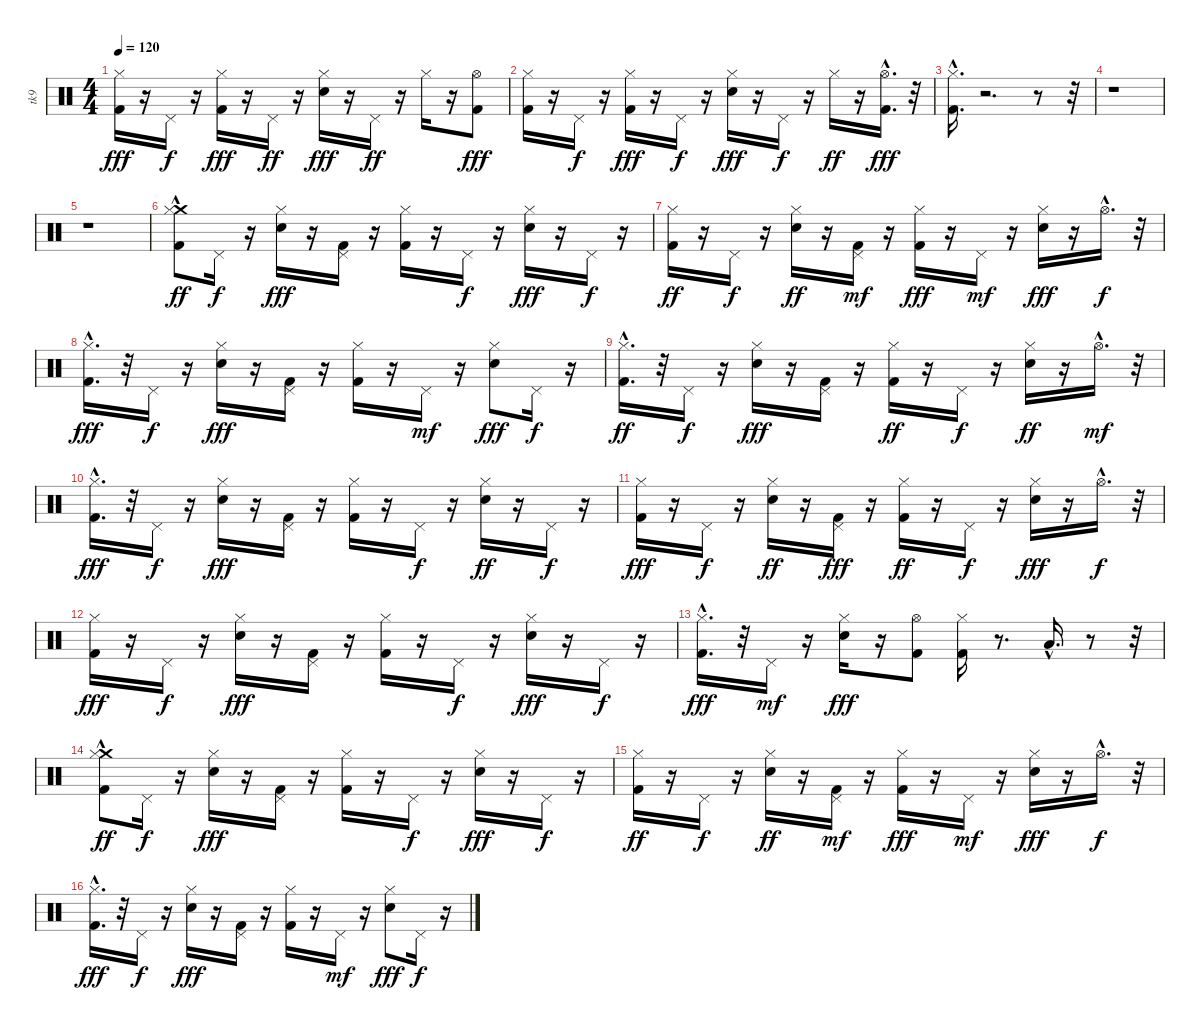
\track ("tk9" "tk9") {instrument percussion}
\staff {score}
\articulation defaults
\ts (4 4)
\tempo 120
\clef neutral
\ks c
("Hi-Hat (closed)" "Kick (hit) 2").16{dy fff} r.16 "Pedal Hi-Hat (hit)".16{dy f} r.16 ("Hi-Hat (closed)" "Kick (hit) 2").16{dy fff} r.16 "Pedal Hi-Hat (hit)".16{dy ff} r.16 ("Hi-Hat (closed)" "Snare (hit) 2").16{dy fff} r.16 "Pedal Hi-Hat (hit)".16{dy ff} r.16 "Hi-Hat (closed)".16 r.16 ("Hi-Hat (open)" "Kick (hit) 2").8{dy fff} |
("Hi-Hat (closed)" "Kick (hit) 2").16 r.16 "Pedal Hi-Hat (hit)".16{dy f} r.16 ("Hi-Hat (closed)" "Kick (hit) 2").16{dy fff} r.16 "Pedal Hi-Hat (hit)".16{dy f} r.16 ("Hi-Hat (closed)" "Snare (hit) 2").16{dy fff} r.16 "Pedal Hi-Hat (hit)".16{dy f} r.16 "Hi-Hat (closed)".16{dy ff} r.16 ("Hi-Hat (open)"{hac} "Kick (hit) 2").16{d dy fff} r.32 |
("Hi-Hat (closed)"{hac} "Kick (hit) 2").16{d} r.2{d} r.8 r.32 |
r.1 |
r.1 |
("Kick (hit) 2"{hac} "Crash medium (hit)" "Hi-Hat (closed)").8{dy ff} "Pedal Hi-Hat (hit)".16{dy f} r.16 ("Hi-Hat (closed)" "Snare (hit) 2").16{dy fff} r.16 ("Pedal Hi-Hat (hit)" "Kick (hit) 2").16 r.16 ("Hi-Hat (closed)" "Kick (hit) 2").16 r.16 "Pedal Hi-Hat (hit)".16{dy f} r.16 ("Hi-Hat (closed)" "Snare (hit) 2").16{dy fff} r.16 "Pedal Hi-Hat (hit)".16{dy f} r.16 |
("Kick (hit) 2" "Hi-Hat (closed)").16{dy ff} r.16 "Pedal Hi-Hat (hit)".16{dy f} r.16 ("Snare (hit) 2" "Hi-Hat (closed)").16{dy ff} r.16 ("Kick (hit) 2" "Pedal Hi-Hat (hit)").16{dy mf} r.16 ("Hi-Hat (closed)" "Kick (hit) 2").16{dy fff} r.16 "Pedal Hi-Hat (hit)".16{dy mf} r.16 ("Hi-Hat (closed)" "Snare (hit) 2").16{dy fff} r.16 "Hi-Hat (open)"{hac}.16{d dy f} r.32 |
("Hi-Hat (closed)"{hac} "Kick (hit) 2").16{d dy fff} r.32 "Pedal Hi-Hat (hit)".16{dy f} r.16 ("Hi-Hat (closed)" "Snare (hit) 2").16{dy fff} r.16 ("Pedal Hi-Hat (hit)" "Kick (hit) 2").16 r.16 ("Hi-Hat (closed)" "Kick (hit) 2").16 r.16 "Pedal Hi-Hat (hit)".16{dy mf} r.16 ("Hi-Hat (closed)" "Snare (hit) 2").8{dy fff} "Pedal Hi-Hat (hit)".16{dy f} r.16 |
("Kick (hit) 2"{hac} "Hi-Hat (closed)"{hac}).16{d dy ff} r.32 "Pedal Hi-Hat (hit)".16{dy f} r.16 ("Hi-Hat (closed)" "Snare (hit) 2").16{dy fff} r.16 ("Pedal Hi-Hat (hit)" "Kick (hit) 2").16 r.16 ("Kick (hit) 2" "Hi-Hat (closed)").16{dy ff} r.16 "Pedal Hi-Hat (hit)".16{dy f} r.16 ("Snare (hit) 2" "Hi-Hat (closed)").16{dy ff} r.16 "Hi-Hat (open)"{hac}.16{d dy mf} r.32 |
("Hi-Hat (closed)"{hac} "Kick (hit) 2"{hac}).16{d dy fff} r.32 "Pedal Hi-Hat (hit)".16{dy f} r.16 ("Hi-Hat (closed)" "Snare (hit) 2").16{dy fff} r.16 ("Pedal Hi-Hat (hit)" "Kick (hit) 2").16 r.16 ("Hi-Hat (closed)" "Kick (hit) 2").16 r.16 "Pedal Hi-Hat (hit)".16{dy f} r.16 ("Snare (hit) 2" "Hi-Hat (closed)").16{dy ff} r.16 "Pedal Hi-Hat (hit)".16{dy f} r.16 |
("Hi-Hat (closed)" "Kick (hit) 2").16{dy fff} r.16 "Pedal Hi-Hat (hit)".16{dy f} r.16 ("Snare (hit) 2" "Hi-Hat (closed)").16{dy ff} r.16 ("Kick (hit) 2" "Pedal Hi-Hat (hit)").16{dy fff} r.16 ("Kick (hit) 2" "Hi-Hat (closed)").16{dy ff} r.16 "Pedal Hi-Hat (hit)".16{dy f} r.16 ("Snare (hit) 2" "Hi-Hat (closed)").16{dy fff} r.16 "Hi-Hat (open)"{hac}.16{d dy f} r.32 |
("Hi-Hat (closed)" "Kick (hit) 2").16{dy fff} r.16 "Pedal Hi-Hat (hit)".16{dy f} r.16 ("Hi-Hat (closed)" "Snare (hit) 2").16{dy fff} r.16 ("Pedal Hi-Hat (hit)" "Kick (hit) 2").16 r.16 ("Hi-Hat (closed)" "Kick (hit) 2").16 r.16 "Pedal Hi-Hat (hit)".16{dy f} r.16 ("Hi-Hat (closed)" "Snare (hit) 2").16{dy fff} r.16 "Pedal Hi-Hat (hit)".16{dy f} r.16 |
("Hi-Hat (closed)" "Kick (hit) 2"{hac}).16{d dy fff} r.32 "Pedal Hi-Hat (hit)".16{dy mf} r.16 ("Snare (hit) 2" "Hi-Hat (closed)").16{dy fff} r.16 ("Kick (hit) 2" "Hi-Hat (open)").8 ("Hi-Hat (closed)" "Kick (hit) 2").16 r.8{d} "Low Tom (hit)"{hac}.16{d} r.8 r.32 |
("Kick (hit) 2"{hac} "Crash medium (hit)" "Hi-Hat (closed)").8{dy ff} "Pedal Hi-Hat (hit)".16{dy f} r.16 ("Hi-Hat (closed)" "Snare (hit) 2").16{dy fff} r.16 ("Pedal Hi-Hat (hit)" "Kick (hit) 2").16 r.16 ("Hi-Hat (closed)" "Kick (hit) 2").16 r.16 "Pedal Hi-Hat (hit)".16{dy f} r.16 ("Hi-Hat (closed)" "Snare (hit) 2").16{dy fff} r.16 "Pedal Hi-Hat (hit)".16{dy f} r.16 |
("Kick (hit) 2" "Hi-Hat (closed)").16{dy ff} r.16 "Pedal Hi-Hat (hit)".16{dy f} r.16 ("Snare (hit) 2" "Hi-Hat (closed)").16{dy ff} r.16 ("Kick (hit) 2" "Pedal Hi-Hat (hit)").16{dy mf} r.16 ("Hi-Hat (closed)" "Kick (hit) 2").16{dy fff} r.16 "Pedal Hi-Hat (hit)".16{dy mf} r.16 ("Hi-Hat (closed)" "Snare (hit) 2").16{dy fff} r.16 "Hi-Hat (open)"{hac}.16{d dy f} r.32 |
("Hi-Hat (closed)"{hac} "Kick (hit) 2").16{d dy fff} r.32 "Pedal Hi-Hat (hit)".16{dy f} r.16 ("Hi-Hat (closed)" "Snare (hit) 2").16{dy fff} r.16 ("Pedal Hi-Hat (hit)" "Kick (hit) 2").16 r.16 ("Hi-Hat (closed)" "Kick (hit) 2").16 r.16 "Pedal Hi-Hat (hit)".16{dy mf} r.16 ("Hi-Hat (closed)" "Snare (hit) 2").8{dy fff} "Pedal Hi-Hat (hit)".16{dy f} r.16
